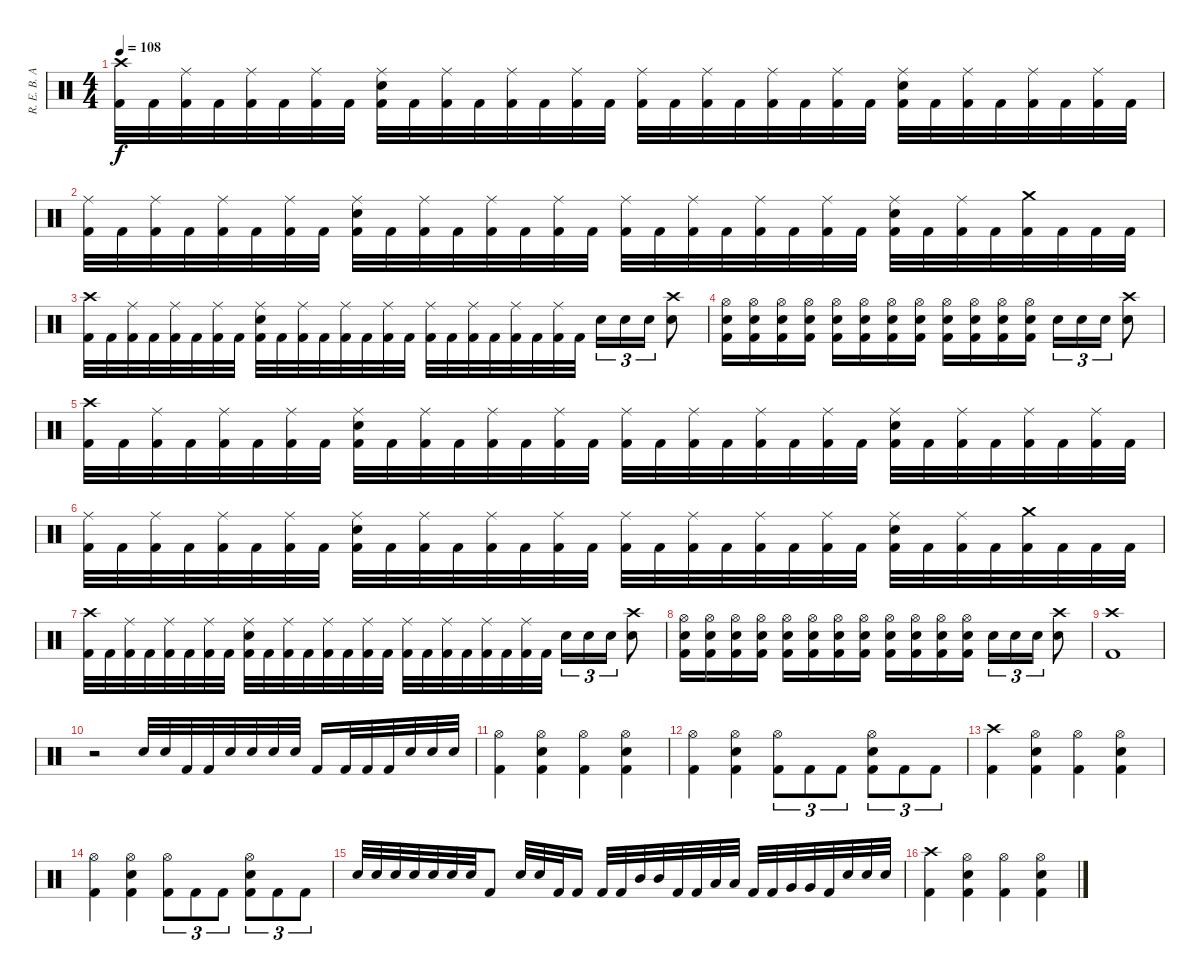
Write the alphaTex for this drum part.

\track ("R. E. B. A." "R. E. B. A") {instrument percussion}
\staff {score}
\articulation defaults
\ts (4 4)
\tempo 108
\clef neutral
\ks c
("Crash high (hit)" "Kick (hit) 2").32{dy f} "Kick (hit) 2".32 ("Ride (middle)" "Kick (hit) 2").32 "Kick (hit) 2".32 ("Ride (middle)" "Kick (hit) 2").32 "Kick (hit) 2".32 ("Ride (middle)" "Kick (hit) 2").32 "Kick (hit) 2".32 ("Ride (middle)" "Snare (hit) 2" "Kick (hit) 2").32 "Kick (hit) 2".32 ("Ride (middle)" "Kick (hit) 2").32 "Kick (hit) 2".32 ("Ride (middle)" "Kick (hit) 2").32 "Kick (hit) 2".32 ("Ride (middle)" "Kick (hit) 2").32 "Kick (hit) 2".32 ("Ride (middle)" "Kick (hit) 2").32 "Kick (hit) 2".32 ("Ride (middle)" "Kick (hit) 2").32 "Kick (hit) 2".32 ("Ride (middle)" "Kick (hit) 2").32 "Kick (hit) 2".32 ("Ride (middle)" "Kick (hit) 2").32 "Kick (hit) 2".32 ("Ride (middle)" "Snare (hit) 2" "Kick (hit) 2").32 "Kick (hit) 2".32 ("Ride (middle)" "Kick (hit) 2").32 "Kick (hit) 2".32 ("Ride (middle)" "Kick (hit) 2").32 "Kick (hit) 2".32 ("Ride (middle)" "Kick (hit) 2").32 "Kick (hit) 2".32 |
("Ride (middle)" "Kick (hit) 2").32 "Kick (hit) 2".32 ("Ride (middle)" "Kick (hit) 2").32 "Kick (hit) 2".32 ("Ride (middle)" "Kick (hit) 2").32 "Kick (hit) 2".32 ("Ride (middle)" "Kick (hit) 2").32 "Kick (hit) 2".32 ("Ride (middle)" "Snare (hit) 2" "Kick (hit) 2").32 "Kick (hit) 2".32 ("Ride (middle)" "Kick (hit) 2").32 "Kick (hit) 2".32 ("Ride (middle)" "Kick (hit) 2").32 "Kick (hit) 2".32 ("Ride (middle)" "Kick (hit) 2").32 "Kick (hit) 2".32 ("Ride (middle)" "Kick (hit) 2").32 "Kick (hit) 2".32 ("Ride (middle)" "Kick (hit) 2").32 "Kick (hit) 2".32 ("Ride (middle)" "Kick (hit) 2").32 "Kick (hit) 2".32 ("Ride (middle)" "Kick (hit) 2").32 "Kick (hit) 2".32 ("Ride (middle)" "Snare (hit) 2" "Kick (hit) 2").32 "Kick (hit) 2".32 ("Ride (middle)" "Kick (hit) 2").32 "Kick (hit) 2".32 ("Crash medium (hit)" "Kick (hit) 2").32 "Kick (hit) 2".32 "Kick (hit) 2".32 "Kick (hit) 2".32 |
("Crash high (hit)" "Kick (hit) 2").32 "Kick (hit) 2".32 ("Ride (middle)" "Kick (hit) 2").32 "Kick (hit) 2".32 ("Ride (middle)" "Kick (hit) 2").32 "Kick (hit) 2".32 ("Ride (middle)" "Kick (hit) 2").32 "Kick (hit) 2".32 ("Ride (middle)" "Snare (hit) 2" "Kick (hit) 2").32 "Kick (hit) 2".32 ("Ride (middle)" "Kick (hit) 2").32 "Kick (hit) 2".32 ("Ride (middle)" "Kick (hit) 2").32 "Kick (hit) 2".32 ("Ride (middle)" "Kick (hit) 2").32 "Kick (hit) 2".32 ("Ride (middle)" "Kick (hit) 2").32 "Kick (hit) 2".32 ("Ride (middle)" "Kick (hit) 2").32 "Kick (hit) 2".32 ("Ride (middle)" "Kick (hit) 2").32 "Kick (hit) 2".32 ("Ride (middle)" "Kick (hit) 2").32 "Kick (hit) 2".32 "Snare (hit) 2".16{tu (3 2)} "Snare (hit) 2".16{tu (3 2)} "Snare (hit) 2".16{tu (3 2)} ("Crash high (hit)" "Snare (hit) 2").8 |
("Hi-Hat (open)" "Snare (hit) 2" "Kick (hit) 2").16 ("Hi-Hat (open)" "Snare (hit) 2" "Kick (hit) 2").16 ("Hi-Hat (open)" "Snare (hit) 2" "Kick (hit) 2").16 ("Hi-Hat (open)" "Snare (hit) 2" "Kick (hit) 2").16 ("Hi-Hat (open)" "Snare (hit) 2" "Kick (hit) 2").16 ("Hi-Hat (open)" "Snare (hit) 2" "Kick (hit) 2").16 ("Hi-Hat (open)" "Snare (hit) 2" "Kick (hit) 2").16 ("Hi-Hat (open)" "Snare (hit) 2" "Kick (hit) 2").16 ("Hi-Hat (open)" "Snare (hit) 2" "Kick (hit) 2").16 ("Hi-Hat (open)" "Snare (hit) 2" "Kick (hit) 2").16 ("Hi-Hat (open)" "Snare (hit) 2" "Kick (hit) 2").16 ("Hi-Hat (open)" "Snare (hit) 2" "Kick (hit) 2").16 "Snare (hit) 2".16{tu (3 2)} "Snare (hit) 2".16{tu (3 2)} "Snare (hit) 2".16{tu (3 2)} ("Crash high (hit)" "Snare (hit) 2").8 |
("Crash high (hit)" "Kick (hit) 2").32 "Kick (hit) 2".32 ("Ride (middle)" "Kick (hit) 2").32 "Kick (hit) 2".32 ("Ride (middle)" "Kick (hit) 2").32 "Kick (hit) 2".32 ("Ride (middle)" "Kick (hit) 2").32 "Kick (hit) 2".32 ("Ride (middle)" "Snare (hit) 2" "Kick (hit) 2").32 "Kick (hit) 2".32 ("Ride (middle)" "Kick (hit) 2").32 "Kick (hit) 2".32 ("Ride (middle)" "Kick (hit) 2").32 "Kick (hit) 2".32 ("Ride (middle)" "Kick (hit) 2").32 "Kick (hit) 2".32 ("Ride (middle)" "Kick (hit) 2").32 "Kick (hit) 2".32 ("Ride (middle)" "Kick (hit) 2").32 "Kick (hit) 2".32 ("Ride (middle)" "Kick (hit) 2").32 "Kick (hit) 2".32 ("Ride (middle)" "Kick (hit) 2").32 "Kick (hit) 2".32 ("Ride (middle)" "Snare (hit) 2" "Kick (hit) 2").32 "Kick (hit) 2".32 ("Ride (middle)" "Kick (hit) 2").32 "Kick (hit) 2".32 ("Ride (middle)" "Kick (hit) 2").32 "Kick (hit) 2".32 ("Ride (middle)" "Kick (hit) 2").32 "Kick (hit) 2".32 |
("Ride (middle)" "Kick (hit) 2").32 "Kick (hit) 2".32 ("Ride (middle)" "Kick (hit) 2").32 "Kick (hit) 2".32 ("Ride (middle)" "Kick (hit) 2").32 "Kick (hit) 2".32 ("Ride (middle)" "Kick (hit) 2").32 "Kick (hit) 2".32 ("Ride (middle)" "Snare (hit) 2" "Kick (hit) 2").32 "Kick (hit) 2".32 ("Ride (middle)" "Kick (hit) 2").32 "Kick (hit) 2".32 ("Ride (middle)" "Kick (hit) 2").32 "Kick (hit) 2".32 ("Ride (middle)" "Kick (hit) 2").32 "Kick (hit) 2".32 ("Ride (middle)" "Kick (hit) 2").32 "Kick (hit) 2".32 ("Ride (middle)" "Kick (hit) 2").32 "Kick (hit) 2".32 ("Ride (middle)" "Kick (hit) 2").32 "Kick (hit) 2".32 ("Ride (middle)" "Kick (hit) 2").32 "Kick (hit) 2".32 ("Ride (middle)" "Snare (hit) 2" "Kick (hit) 2").32 "Kick (hit) 2".32 ("Ride (middle)" "Kick (hit) 2").32 "Kick (hit) 2".32 ("Crash medium (hit)" "Kick (hit) 2").32 "Kick (hit) 2".32 "Kick (hit) 2".32 "Kick (hit) 2".32 |
("Crash high (hit)" "Kick (hit) 2").32 "Kick (hit) 2".32 ("Ride (middle)" "Kick (hit) 2").32 "Kick (hit) 2".32 ("Ride (middle)" "Kick (hit) 2").32 "Kick (hit) 2".32 ("Ride (middle)" "Kick (hit) 2").32 "Kick (hit) 2".32 ("Ride (middle)" "Snare (hit) 2" "Kick (hit) 2").32 "Kick (hit) 2".32 ("Ride (middle)" "Kick (hit) 2").32 "Kick (hit) 2".32 ("Ride (middle)" "Kick (hit) 2").32 "Kick (hit) 2".32 ("Ride (middle)" "Kick (hit) 2").32 "Kick (hit) 2".32 ("Ride (middle)" "Kick (hit) 2").32 "Kick (hit) 2".32 ("Ride (middle)" "Kick (hit) 2").32 "Kick (hit) 2".32 ("Ride (middle)" "Kick (hit) 2").32 "Kick (hit) 2".32 ("Ride (middle)" "Kick (hit) 2").32 "Kick (hit) 2".32 "Snare (hit) 2".16{tu (3 2)} "Snare (hit) 2".16{tu (3 2)} "Snare (hit) 2".16{tu (3 2)} ("Crash high (hit)" "Snare (hit) 2").8 |
("Hi-Hat (open)" "Snare (hit) 2" "Kick (hit) 2").16 ("Hi-Hat (open)" "Snare (hit) 2" "Kick (hit) 2").16 ("Hi-Hat (open)" "Snare (hit) 2" "Kick (hit) 2").16 ("Hi-Hat (open)" "Snare (hit) 2" "Kick (hit) 2").16 ("Hi-Hat (open)" "Snare (hit) 2" "Kick (hit) 2").16 ("Hi-Hat (open)" "Snare (hit) 2" "Kick (hit) 2").16 ("Hi-Hat (open)" "Snare (hit) 2" "Kick (hit) 2").16 ("Hi-Hat (open)" "Snare (hit) 2" "Kick (hit) 2").16 ("Hi-Hat (open)" "Snare (hit) 2" "Kick (hit) 2").16 ("Hi-Hat (open)" "Snare (hit) 2" "Kick (hit) 2").16 ("Hi-Hat (open)" "Snare (hit) 2" "Kick (hit) 2").16 ("Hi-Hat (open)" "Snare (hit) 2" "Kick (hit) 2").16 "Snare (hit) 2".16{tu (3 2)} "Snare (hit) 2".16{tu (3 2)} "Snare (hit) 2".16{tu (3 2)} ("Crash high (hit)" "Snare (hit) 2").8 |
("Crash high (hit)" "Kick (hit) 2").1 |
r.2 "Snare (hit) 2".32 "Snare (hit) 2".32 "Kick (hit) 2".32 "Kick (hit) 2".32 "Snare (hit) 2".32 "Snare (hit) 2".32 "Snare (hit) 2".32 "Snare (hit) 2".32 "Kick (hit) 2".16 "Kick (hit) 2".32 "Kick (hit) 2".32 "Kick (hit) 2".32 "Snare (hit) 2".32 "Snare (hit) 2".32 "Snare (hit) 2".32 |
("Hi-Hat (open)" "Kick (hit) 2").4 ("Hi-Hat (open)" "Snare (hit) 2" "Kick (hit) 2").4 ("Hi-Hat (open)" "Kick (hit) 2").4 ("Hi-Hat (open)" "Snare (hit) 2" "Kick (hit) 2").4 |
("Hi-Hat (open)" "Kick (hit) 2").4 ("Hi-Hat (open)" "Snare (hit) 2" "Kick (hit) 2").4 ("Hi-Hat (open)" "Kick (hit) 2").8{tu (3 2)} "Kick (hit) 2".8{tu (3 2)} "Kick (hit) 2".8{tu (3 2)} ("Hi-Hat (open)" "Snare (hit) 2" "Kick (hit) 2").8{tu (3 2)} "Kick (hit) 2".8{tu (3 2)} "Kick (hit) 2".8{tu (3 2)} |
("Crash high (hit)" "Kick (hit) 2").4 ("Hi-Hat (open)" "Snare (hit) 2" "Kick (hit) 2").4 ("Hi-Hat (open)" "Kick (hit) 2").4 ("Hi-Hat (open)" "Snare (hit) 2" "Kick (hit) 2").4 |
("Hi-Hat (open)" "Kick (hit) 2").4 ("Hi-Hat (open)" "Snare (hit) 2" "Kick (hit) 2").4 ("Hi-Hat (open)" "Kick (hit) 2").8{tu (3 2)} "Kick (hit) 2".8{tu (3 2)} "Kick (hit) 2".8{tu (3 2)} ("Hi-Hat (open)" "Snare (hit) 2" "Kick (hit) 2").8{tu (3 2)} "Kick (hit) 2".8{tu (3 2)} "Kick (hit) 2".8{tu (3 2)} |
"Snare (hit) 2".32 "Snare (hit) 2".32 "Snare (hit) 2".32 "Snare (hit) 2".32 "Snare (hit) 2".32 "Snare (hit) 2".32 "Snare (hit) 2".32 "Kick (hit) 2".8 "Snare (hit) 2".32 "Snare (hit) 2".32 "Kick (hit) 2".32 "Kick (hit) 2".16 "Kick (hit) 2".32 "Kick (hit) 2".32 "Mid Tom (hit)".32 "Mid Tom (hit)".32 "Kick (hit) 2".32 "Kick (hit) 2".32 "Low Tom (hit)".32 "Low Tom (hit)".32 "Kick (hit) 2".32 "Kick (hit) 2".32 "Very Low Tom (hit)".32 "Very Low Tom (hit)".32 "Kick (hit) 2".32 "Snare (hit) 2".32 "Snare (hit) 2".32 "Snare (hit) 2".32 |
("Crash high (hit)" "Kick (hit) 2").4 ("Hi-Hat (open)" "Snare (hit) 2" "Kick (hit) 2").4 ("Hi-Hat (open)" "Kick (hit) 2").4 ("Hi-Hat (open)" "Snare (hit) 2" "Kick (hit) 2").4
